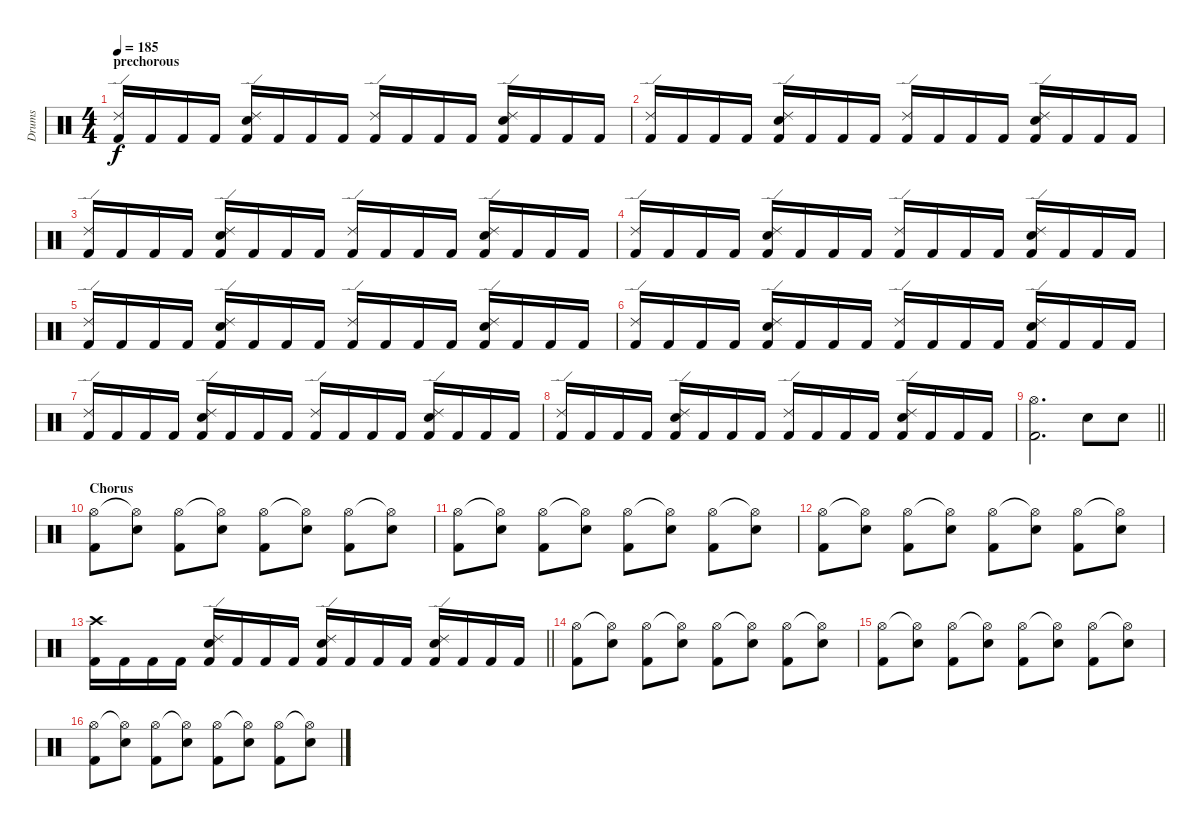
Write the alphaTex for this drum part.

\track ("Drums" "Drums") {instrument percussion}
\staff {score}
\articulation defaults
\ts (4 4)
\section ("" "prechorous")
\tempo 185
\clef neutral
\ks c
("Ride (edge) 2" "Kick (hit) 2").16{dy f} "Kick (hit) 2".16 "Kick (hit) 2".16 "Kick (hit) 2".16 ("Ride (edge) 2" "Electric Snare (hit)" "Kick (hit) 2").16 "Kick (hit) 2".16 "Kick (hit) 2".16 "Kick (hit) 2".16 ("Ride (edge) 2" "Kick (hit) 2").16 "Kick (hit) 2".16 "Kick (hit) 2".16 "Kick (hit) 2".16 ("Ride (edge) 2" "Electric Snare (hit)" "Kick (hit) 2").16 "Kick (hit) 2".16 "Kick (hit) 2".16 "Kick (hit) 2".16 |
("Ride (edge) 2" "Kick (hit) 2").16 "Kick (hit) 2".16 "Kick (hit) 2".16 "Kick (hit) 2".16 ("Ride (edge) 2" "Electric Snare (hit)" "Kick (hit) 2").16 "Kick (hit) 2".16 "Kick (hit) 2".16 "Kick (hit) 2".16 ("Ride (edge) 2" "Kick (hit) 2").16 "Kick (hit) 2".16 "Kick (hit) 2".16 "Kick (hit) 2".16 ("Ride (edge) 2" "Electric Snare (hit)" "Kick (hit) 2").16 "Kick (hit) 2".16 "Kick (hit) 2".16 "Kick (hit) 2".16 |
("Ride (edge) 2" "Kick (hit) 2").16 "Kick (hit) 2".16 "Kick (hit) 2".16 "Kick (hit) 2".16 ("Ride (edge) 2" "Electric Snare (hit)" "Kick (hit) 2").16 "Kick (hit) 2".16 "Kick (hit) 2".16 "Kick (hit) 2".16 ("Ride (edge) 2" "Kick (hit) 2").16 "Kick (hit) 2".16 "Kick (hit) 2".16 "Kick (hit) 2".16 ("Ride (edge) 2" "Electric Snare (hit)" "Kick (hit) 2").16 "Kick (hit) 2".16 "Kick (hit) 2".16 "Kick (hit) 2".16 |
("Ride (edge) 2" "Kick (hit) 2").16 "Kick (hit) 2".16 "Kick (hit) 2".16 "Kick (hit) 2".16 ("Ride (edge) 2" "Electric Snare (hit)" "Kick (hit) 2").16 "Kick (hit) 2".16 "Kick (hit) 2".16 "Kick (hit) 2".16 ("Ride (edge) 2" "Kick (hit) 2").16 "Kick (hit) 2".16 "Kick (hit) 2".16 "Kick (hit) 2".16 ("Ride (edge) 2" "Electric Snare (hit)" "Kick (hit) 2").16 "Kick (hit) 2".16 "Kick (hit) 2".16 "Kick (hit) 2".16 |
("Ride (edge) 2" "Kick (hit) 2").16 "Kick (hit) 2".16 "Kick (hit) 2".16 "Kick (hit) 2".16 ("Ride (edge) 2" "Electric Snare (hit)" "Kick (hit) 2").16 "Kick (hit) 2".16 "Kick (hit) 2".16 "Kick (hit) 2".16 ("Ride (edge) 2" "Kick (hit) 2").16 "Kick (hit) 2".16 "Kick (hit) 2".16 "Kick (hit) 2".16 ("Ride (edge) 2" "Electric Snare (hit)" "Kick (hit) 2").16 "Kick (hit) 2".16 "Kick (hit) 2".16 "Kick (hit) 2".16 |
("Ride (edge) 2" "Kick (hit) 2").16 "Kick (hit) 2".16 "Kick (hit) 2".16 "Kick (hit) 2".16 ("Ride (edge) 2" "Electric Snare (hit)" "Kick (hit) 2").16 "Kick (hit) 2".16 "Kick (hit) 2".16 "Kick (hit) 2".16 ("Ride (edge) 2" "Kick (hit) 2").16 "Kick (hit) 2".16 "Kick (hit) 2".16 "Kick (hit) 2".16 ("Ride (edge) 2" "Electric Snare (hit)" "Kick (hit) 2").16 "Kick (hit) 2".16 "Kick (hit) 2".16 "Kick (hit) 2".16 |
("Ride (edge) 2" "Kick (hit) 2").16 "Kick (hit) 2".16 "Kick (hit) 2".16 "Kick (hit) 2".16 ("Ride (edge) 2" "Electric Snare (hit)" "Kick (hit) 2").16 "Kick (hit) 2".16 "Kick (hit) 2".16 "Kick (hit) 2".16 ("Ride (edge) 2" "Kick (hit) 2").16 "Kick (hit) 2".16 "Kick (hit) 2".16 "Kick (hit) 2".16 ("Ride (edge) 2" "Electric Snare (hit)" "Kick (hit) 2").16 "Kick (hit) 2".16 "Kick (hit) 2".16 "Kick (hit) 2".16 |
("Ride (edge) 2" "Kick (hit) 2").16 "Kick (hit) 2".16 "Kick (hit) 2".16 "Kick (hit) 2".16 ("Ride (edge) 2" "Electric Snare (hit)" "Kick (hit) 2").16 "Kick (hit) 2".16 "Kick (hit) 2".16 "Kick (hit) 2".16 ("Ride (edge) 2" "Kick (hit) 2").16 "Kick (hit) 2".16 "Kick (hit) 2".16 "Kick (hit) 2".16 ("Ride (edge) 2" "Electric Snare (hit)" "Kick (hit) 2").16 "Kick (hit) 2".16 "Kick (hit) 2".16 "Kick (hit) 2".16 |
\barLineRight lightlight
("Hi-Hat (open)" "Kick (hit) 2").2{d} "Electric Snare (hit)".8 "Electric Snare (hit)".8 |
\section ("" "Chorus")
("Hi-Hat (open)" "Kick (hit) 2").8 ("Hi-Hat (open)"{t} "Electric Snare (hit)").8 ("Hi-Hat (open)" "Kick (hit) 2").8 ("Hi-Hat (open)"{t} "Electric Snare (hit)").8 ("Hi-Hat (open)" "Kick (hit) 2").8 ("Hi-Hat (open)"{t} "Electric Snare (hit)").8 ("Hi-Hat (open)" "Kick (hit) 2").8 ("Hi-Hat (open)"{t} "Electric Snare (hit)").8 |
("Hi-Hat (open)" "Kick (hit) 2").8 ("Hi-Hat (open)"{t} "Electric Snare (hit)").8 ("Hi-Hat (open)" "Kick (hit) 2").8 ("Hi-Hat (open)"{t} "Electric Snare (hit)").8 ("Hi-Hat (open)" "Kick (hit) 2").8 ("Hi-Hat (open)"{t} "Electric Snare (hit)").8 ("Hi-Hat (open)" "Kick (hit) 2").8 ("Hi-Hat (open)"{t} "Electric Snare (hit)").8 |
("Hi-Hat (open)" "Kick (hit) 2").8 ("Hi-Hat (open)"{t} "Electric Snare (hit)").8 ("Hi-Hat (open)" "Kick (hit) 2").8 ("Hi-Hat (open)"{t} "Electric Snare (hit)").8 ("Hi-Hat (open)" "Kick (hit) 2").8 ("Hi-Hat (open)"{t} "Electric Snare (hit)").8 ("Hi-Hat (open)" "Kick (hit) 2").8 ("Hi-Hat (open)"{t} "Electric Snare (hit)").8 |
\barLineRight lightlight
("Crash high (hit)" "Kick (hit) 2").16 "Kick (hit) 2".16 "Kick (hit) 2".16 "Kick (hit) 2".16 ("Ride (edge) 2" "Electric Snare (hit)" "Kick (hit) 2").16 "Kick (hit) 2".16 "Kick (hit) 2".16 "Kick (hit) 2".16 ("Ride (edge) 2" "Electric Snare (hit)" "Kick (hit) 2").16 "Kick (hit) 2".16 "Kick (hit) 2".16 "Kick (hit) 2".16 ("Ride (edge) 2" "Electric Snare (hit)" "Kick (hit) 2").16 "Kick (hit) 2".16 "Kick (hit) 2".16 "Kick (hit) 2".16 |
("Hi-Hat (open)" "Kick (hit) 2").8 ("Hi-Hat (open)"{t} "Electric Snare (hit)").8 ("Hi-Hat (open)" "Kick (hit) 2").8 ("Hi-Hat (open)"{t} "Electric Snare (hit)").8 ("Hi-Hat (open)" "Kick (hit) 2").8 ("Hi-Hat (open)"{t} "Electric Snare (hit)").8 ("Hi-Hat (open)" "Kick (hit) 2").8 ("Hi-Hat (open)"{t} "Electric Snare (hit)").8 |
("Hi-Hat (open)" "Kick (hit) 2").8 ("Hi-Hat (open)"{t} "Electric Snare (hit)").8 ("Hi-Hat (open)" "Kick (hit) 2").8 ("Hi-Hat (open)"{t} "Electric Snare (hit)").8 ("Hi-Hat (open)" "Kick (hit) 2").8 ("Hi-Hat (open)"{t} "Electric Snare (hit)").8 ("Hi-Hat (open)" "Kick (hit) 2").8 ("Hi-Hat (open)"{t} "Electric Snare (hit)").8 |
("Hi-Hat (open)" "Kick (hit) 2").8 ("Hi-Hat (open)"{t} "Electric Snare (hit)").8 ("Hi-Hat (open)" "Kick (hit) 2").8 ("Hi-Hat (open)"{t} "Electric Snare (hit)").8 ("Hi-Hat (open)" "Kick (hit) 2").8 ("Hi-Hat (open)"{t} "Electric Snare (hit)").8 ("Hi-Hat (open)" "Kick (hit) 2").8 ("Hi-Hat (open)"{t} "Electric Snare (hit)").8
